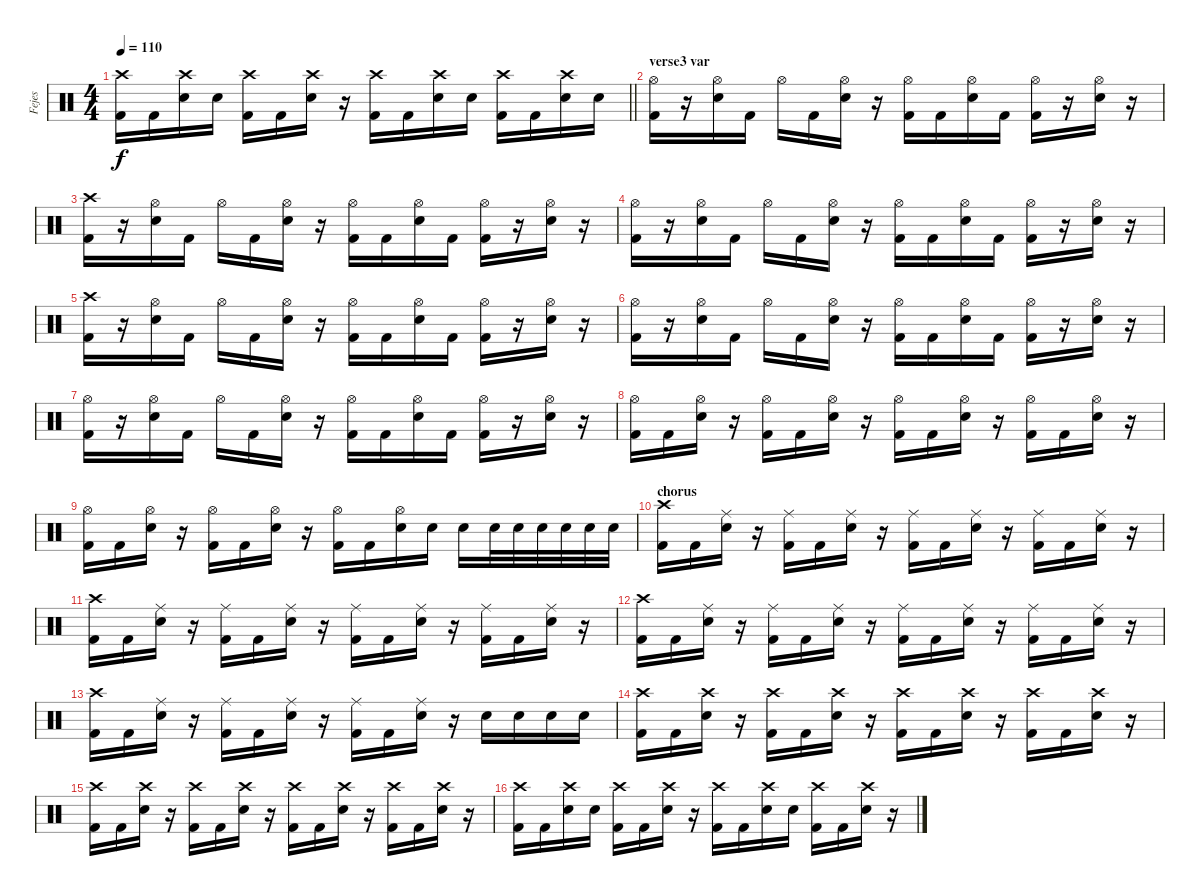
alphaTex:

\track ("Fejes" "Fejes") {instrument percussion}
\staff {score}
\articulation defaults
\ts (4 4)
\tempo 110
\clef neutral
\barLineRight lightlight
\ks c
("Crash high (hit)" "Kick (hit) 2").16{dy f} "Kick (hit) 2".16 ("Crash high (hit)" "Snare (hit) 2").16 "Snare (hit) 2".16 ("Crash high (hit)" "Kick (hit) 2").16 "Kick (hit) 2".16 ("Crash high (hit)" "Snare (hit) 2").16 r.16 ("Crash high (hit)" "Kick (hit) 2").16 "Kick (hit) 2".16 ("Crash high (hit)" "Snare (hit) 2").16 "Snare (hit) 2".16 ("Crash high (hit)" "Kick (hit) 2").16 "Kick (hit) 2".16 ("Crash high (hit)" "Snare (hit) 2").16 "Snare (hit) 2".16 |
\section ("" "verse3 var")
("Hi-Hat (open)" "Kick (hit) 2").16 r.16 ("Hi-Hat (open)" "Snare (hit) 2").16 "Kick (hit) 2".16 "Hi-Hat (open)".16 "Kick (hit) 2".16 ("Hi-Hat (open)" "Snare (hit) 2").16 r.16 ("Hi-Hat (open)" "Kick (hit) 2").16 "Kick (hit) 2".16 ("Hi-Hat (open)" "Snare (hit) 2").16 "Kick (hit) 2".16 ("Hi-Hat (open)" "Kick (hit) 2").16 r.16 ("Hi-Hat (open)" "Snare (hit) 2").16 r.16 |
("Crash high (hit)" "Kick (hit) 2").16 r.16 ("Hi-Hat (open)" "Snare (hit) 2").16 "Kick (hit) 2".16 "Hi-Hat (open)".16 "Kick (hit) 2".16 ("Hi-Hat (open)" "Snare (hit) 2").16 r.16 ("Hi-Hat (open)" "Kick (hit) 2").16 "Kick (hit) 2".16 ("Hi-Hat (open)" "Snare (hit) 2").16 "Kick (hit) 2".16 ("Hi-Hat (open)" "Kick (hit) 2").16 r.16 ("Hi-Hat (open)" "Snare (hit) 2").16 r.16 |
("Hi-Hat (open)" "Kick (hit) 2").16 r.16 ("Hi-Hat (open)" "Snare (hit) 2").16 "Kick (hit) 2".16 "Hi-Hat (open)".16 "Kick (hit) 2".16 ("Hi-Hat (open)" "Snare (hit) 2").16 r.16 ("Hi-Hat (open)" "Kick (hit) 2").16 "Kick (hit) 2".16 ("Hi-Hat (open)" "Snare (hit) 2").16 "Kick (hit) 2".16 ("Hi-Hat (open)" "Kick (hit) 2").16 r.16 ("Hi-Hat (open)" "Snare (hit) 2").16 r.16 |
("Crash high (hit)" "Kick (hit) 2").16 r.16 ("Hi-Hat (open)" "Snare (hit) 2").16 "Kick (hit) 2".16 "Hi-Hat (open)".16 "Kick (hit) 2".16 ("Hi-Hat (open)" "Snare (hit) 2").16 r.16 ("Hi-Hat (open)" "Kick (hit) 2").16 "Kick (hit) 2".16 ("Hi-Hat (open)" "Snare (hit) 2").16 "Kick (hit) 2".16 ("Hi-Hat (open)" "Kick (hit) 2").16 r.16 ("Hi-Hat (open)" "Snare (hit) 2").16 r.16 |
("Hi-Hat (open)" "Kick (hit) 2").16 r.16 ("Hi-Hat (open)" "Snare (hit) 2").16 "Kick (hit) 2".16 "Hi-Hat (open)".16 "Kick (hit) 2".16 ("Hi-Hat (open)" "Snare (hit) 2").16 r.16 ("Hi-Hat (open)" "Kick (hit) 2").16 "Kick (hit) 2".16 ("Hi-Hat (open)" "Snare (hit) 2").16 "Kick (hit) 2".16 ("Hi-Hat (open)" "Kick (hit) 2").16 r.16 ("Hi-Hat (open)" "Snare (hit) 2").16 r.16 |
("Hi-Hat (open)" "Kick (hit) 2").16 r.16 ("Hi-Hat (open)" "Snare (hit) 2").16 "Kick (hit) 2".16 "Hi-Hat (open)".16 "Kick (hit) 2".16 ("Hi-Hat (open)" "Snare (hit) 2").16 r.16 ("Hi-Hat (open)" "Kick (hit) 2").16 "Kick (hit) 2".16 ("Hi-Hat (open)" "Snare (hit) 2").16 "Kick (hit) 2".16 ("Hi-Hat (open)" "Kick (hit) 2").16 r.16 ("Hi-Hat (open)" "Snare (hit) 2").16 r.16 |
("Hi-Hat (open)" "Kick (hit) 2").16 "Kick (hit) 2".16 ("Hi-Hat (open)" "Snare (hit) 2").16 r.16 ("Hi-Hat (open)" "Kick (hit) 2").16 "Kick (hit) 2".16 ("Hi-Hat (open)" "Snare (hit) 2").16 r.16 ("Hi-Hat (open)" "Kick (hit) 2").16 "Kick (hit) 2".16 ("Hi-Hat (open)" "Snare (hit) 2").16 r.16 ("Hi-Hat (open)" "Kick (hit) 2").16 "Kick (hit) 2".16 ("Hi-Hat (open)" "Snare (hit) 2").16 r.16 |
("Hi-Hat (open)" "Kick (hit) 2").16 "Kick (hit) 2".16 ("Hi-Hat (open)" "Snare (hit) 2").16 r.16 ("Hi-Hat (open)" "Kick (hit) 2").16 "Kick (hit) 2".16 ("Hi-Hat (open)" "Snare (hit) 2").16 r.16 ("Hi-Hat (open)" "Kick (hit) 2").16 "Kick (hit) 2".16 ("Hi-Hat (open)" "Snare (hit) 2").16 "Snare (hit) 2".16 "Snare (hit) 2".16 "Snare (hit) 2".32 "Snare (hit) 2".32 "Snare (hit) 2".32 "Snare (hit) 2".32 "Snare (hit) 2".32 "Snare (hit) 2".32 |
\section ("" "chorus")
("Crash high (hit)" "Kick (hit) 2").16 "Kick (hit) 2".16 ("Ride (middle)" "Snare (hit) 2").16 r.16 ("Ride (middle)" "Kick (hit) 2").16 "Kick (hit) 2".16 ("Ride (middle)" "Snare (hit) 2").16 r.16 ("Ride (middle)" "Kick (hit) 2").16 "Kick (hit) 2".16 ("Ride (middle)" "Snare (hit) 2").16 r.16 ("Ride (middle)" "Kick (hit) 2").16 "Kick (hit) 2".16 ("Ride (middle)" "Snare (hit) 2").16 r.16 |
("Crash high (hit)" "Kick (hit) 2").16 "Kick (hit) 2".16 ("Ride (middle)" "Snare (hit) 2").16 r.16 ("Ride (middle)" "Kick (hit) 2").16 "Kick (hit) 2".16 ("Ride (middle)" "Snare (hit) 2").16 r.16 ("Ride (middle)" "Kick (hit) 2").16 "Kick (hit) 2".16 ("Ride (middle)" "Snare (hit) 2").16 r.16 ("Ride (middle)" "Kick (hit) 2").16 "Kick (hit) 2".16 ("Ride (middle)" "Snare (hit) 2").16 r.16 |
("Crash high (hit)" "Kick (hit) 2").16 "Kick (hit) 2".16 ("Ride (middle)" "Snare (hit) 2").16 r.16 ("Ride (middle)" "Kick (hit) 2").16 "Kick (hit) 2".16 ("Ride (middle)" "Snare (hit) 2").16 r.16 ("Ride (middle)" "Kick (hit) 2").16 "Kick (hit) 2".16 ("Ride (middle)" "Snare (hit) 2").16 r.16 ("Ride (middle)" "Kick (hit) 2").16 "Kick (hit) 2".16 ("Ride (middle)" "Snare (hit) 2").16 r.16 |
("Crash high (hit)" "Kick (hit) 2").16 "Kick (hit) 2".16 ("Ride (middle)" "Snare (hit) 2").16 r.16 ("Ride (middle)" "Kick (hit) 2").16 "Kick (hit) 2".16 ("Ride (middle)" "Snare (hit) 2").16 r.16 ("Ride (middle)" "Kick (hit) 2").16 "Kick (hit) 2".16 ("Ride (middle)" "Snare (hit) 2").16 r.16 "Snare (hit) 2".16 "Snare (hit) 2".16 "Snare (hit) 2".16 "Snare (hit) 2".16 |
("Crash high (hit)" "Kick (hit) 2").16 "Kick (hit) 2".16 ("Crash high (hit)" "Snare (hit) 2").16 r.16 ("Crash high (hit)" "Kick (hit) 2").16 "Kick (hit) 2".16 ("Crash high (hit)" "Snare (hit) 2").16 r.16 ("Crash high (hit)" "Kick (hit) 2").16 "Kick (hit) 2".16 ("Crash high (hit)" "Snare (hit) 2").16 r.16 ("Crash high (hit)" "Kick (hit) 2").16 "Kick (hit) 2".16 ("Crash high (hit)" "Snare (hit) 2").16 r.16 |
("Crash high (hit)" "Kick (hit) 2").16 "Kick (hit) 2".16 ("Crash high (hit)" "Snare (hit) 2").16 r.16 ("Crash high (hit)" "Kick (hit) 2").16 "Kick (hit) 2".16 ("Crash high (hit)" "Snare (hit) 2").16 r.16 ("Crash high (hit)" "Kick (hit) 2").16 "Kick (hit) 2".16 ("Crash high (hit)" "Snare (hit) 2").16 r.16 ("Crash high (hit)" "Kick (hit) 2").16 "Kick (hit) 2".16 ("Crash high (hit)" "Snare (hit) 2").16 r.16 |
("Crash high (hit)" "Kick (hit) 2").16 "Kick (hit) 2".16 ("Crash high (hit)" "Snare (hit) 2").16 "Snare (hit) 2".16 ("Crash high (hit)" "Kick (hit) 2").16 "Kick (hit) 2".16 ("Crash high (hit)" "Snare (hit) 2").16 r.16 ("Crash high (hit)" "Kick (hit) 2").16 "Kick (hit) 2".16 ("Crash high (hit)" "Snare (hit) 2").16 "Snare (hit) 2".16 ("Crash high (hit)" "Kick (hit) 2").16 "Kick (hit) 2".16 ("Crash high (hit)" "Snare (hit) 2").16 r.16
